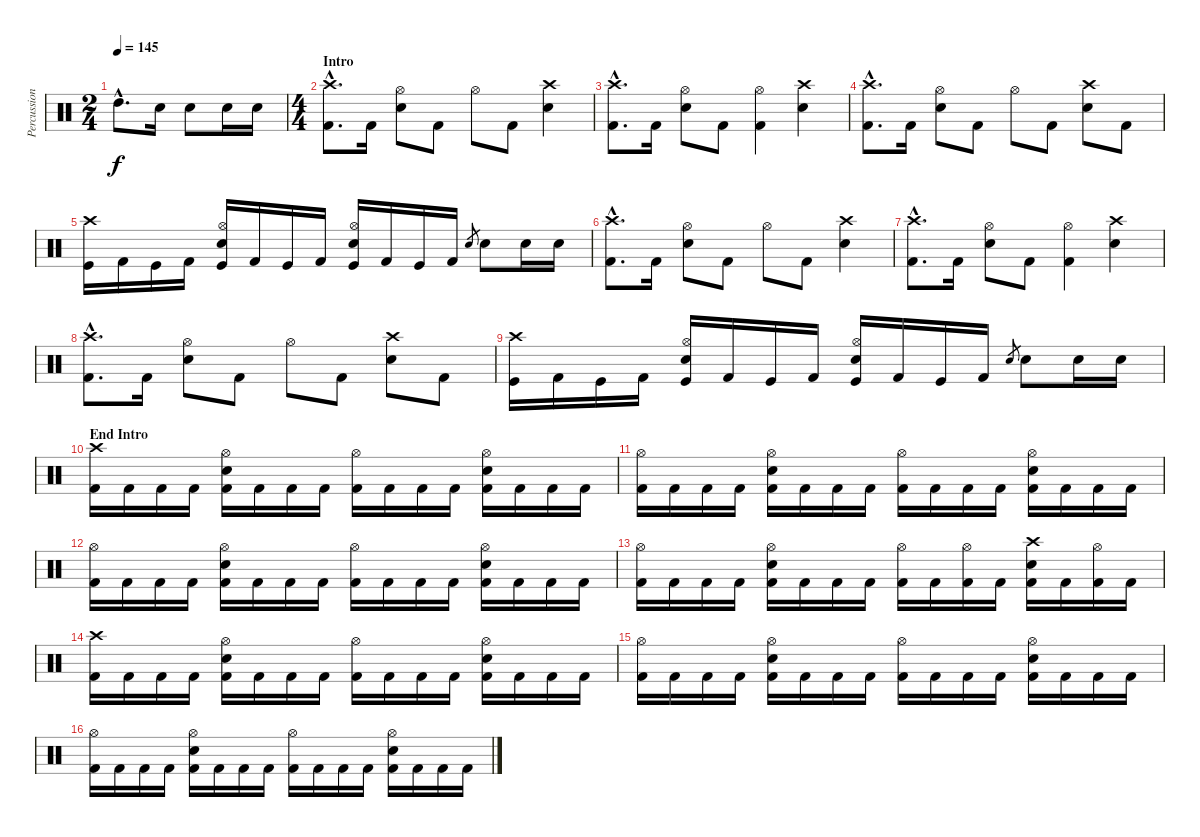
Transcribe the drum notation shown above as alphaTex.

\track ("Percussions" "Percussion") {instrument percussion}
\staff {score}
\articulation defaults
\ts (2 4)
\tempo 145
\clef neutral
\ks c "High Tom (hit)"{hac}.8{d dy f} "Electric Snare (hit)".16 "Electric Snare (hit)".8 "Electric Snare (hit)".16 "Electric Snare (hit)".16
|
\ts (4 4)
\section ("" "Intro")
("Crash high (hit)"{hac} "Kick (hit) 2"{hac}).8{d} "Kick (hit) 2".16 ("Hi-Hat (open)" "Electric Snare (hit)").8 "Kick (hit) 2".8 "Hi-Hat (open)".8 "Kick (hit) 2".8 ("Crash high (hit)" "Electric Snare (hit)").4 |
("Crash high (hit)"{hac} "Kick (hit) 2"{hac}).8{d} "Kick (hit) 2".16 ("Hi-Hat (open)" "Electric Snare (hit)").8 "Kick (hit) 2".8 ("Hi-Hat (open)" "Kick (hit) 2").4 ("Crash high (hit)" "Electric Snare (hit)").4 |
("Crash high (hit)"{hac} "Kick (hit) 2"{hac}).8{d} "Kick (hit) 2".16 ("Hi-Hat (open)" "Electric Snare (hit)").8 "Kick (hit) 2".8 "Hi-Hat (open)".8 "Kick (hit) 2".8 ("Crash high (hit)" "Electric Snare (hit)").8 "Kick (hit) 2".8 |
("Crash high (hit)" "Kick (hit)").16 "Kick (hit) 2".16 "Kick (hit)".16 "Kick (hit) 2".16 ("Hi-Hat (open)" "Electric Snare (hit)" "Kick (hit)").16 "Kick (hit) 2".16 "Kick (hit)".16 "Kick (hit) 2".16 ("Hi-Hat (open)" "Electric Snare (hit)" "Kick (hit)").16 "Kick (hit) 2".16 "Kick (hit)".16 "Kick (hit) 2".16 "Electric Snare (hit)".8{gr} "Electric Snare (hit)".8 "Electric Snare (hit)".16 "Electric Snare (hit)".16 |
("Crash high (hit)"{hac} "Kick (hit) 2"{hac}).8{d} "Kick (hit) 2".16 ("Hi-Hat (open)" "Electric Snare (hit)").8 "Kick (hit) 2".8 "Hi-Hat (open)".8 "Kick (hit) 2".8 ("Crash high (hit)" "Electric Snare (hit)").4 |
("Crash high (hit)"{hac} "Kick (hit) 2"{hac}).8{d} "Kick (hit) 2".16 ("Hi-Hat (open)" "Electric Snare (hit)").8 "Kick (hit) 2".8 ("Hi-Hat (open)" "Kick (hit) 2").4 ("Crash high (hit)" "Electric Snare (hit)").4 |
("Crash high (hit)"{hac} "Kick (hit) 2"{hac}).8{d} "Kick (hit) 2".16 ("Hi-Hat (open)" "Electric Snare (hit)").8 "Kick (hit) 2".8 "Hi-Hat (open)".8 "Kick (hit) 2".8 ("Crash high (hit)" "Electric Snare (hit)").8 "Kick (hit) 2".8 |
("Crash high (hit)" "Kick (hit)").16 "Kick (hit) 2".16 "Kick (hit)".16 "Kick (hit) 2".16 ("Hi-Hat (open)" "Electric Snare (hit)" "Kick (hit)").16 "Kick (hit) 2".16 "Kick (hit)".16 "Kick (hit) 2".16 ("Hi-Hat (open)" "Electric Snare (hit)" "Kick (hit)").16 "Kick (hit) 2".16 "Kick (hit)".16 "Kick (hit) 2".16 "Electric Snare (hit)".8{gr} "Electric Snare (hit)".8 "Electric Snare (hit)".16 "Electric Snare (hit)".16 |
\section ("" "End Intro")
("Crash high (hit)" "Kick (hit) 2").16 "Kick (hit) 2".16 "Kick (hit) 2".16 "Kick (hit) 2".16 ("Hi-Hat (open)" "Electric Snare (hit)" "Kick (hit) 2").16 "Kick (hit) 2".16 "Kick (hit) 2".16 "Kick (hit) 2".16 ("Hi-Hat (open)" "Kick (hit) 2").16 "Kick (hit) 2".16 "Kick (hit) 2".16 "Kick (hit) 2".16 ("Hi-Hat (open)" "Electric Snare (hit)" "Kick (hit) 2").16 "Kick (hit) 2".16 "Kick (hit) 2".16 "Kick (hit) 2".16 |
("Hi-Hat (open)" "Kick (hit) 2").16 "Kick (hit) 2".16 "Kick (hit) 2".16 "Kick (hit) 2".16 ("Hi-Hat (open)" "Electric Snare (hit)" "Kick (hit) 2").16 "Kick (hit) 2".16 "Kick (hit) 2".16 "Kick (hit) 2".16 ("Hi-Hat (open)" "Kick (hit) 2").16 "Kick (hit) 2".16 "Kick (hit) 2".16 "Kick (hit) 2".16 ("Hi-Hat (open)" "Electric Snare (hit)" "Kick (hit) 2").16 "Kick (hit) 2".16 "Kick (hit) 2".16 "Kick (hit) 2".16 |
("Hi-Hat (open)" "Kick (hit) 2").16 "Kick (hit) 2".16 "Kick (hit) 2".16 "Kick (hit) 2".16 ("Hi-Hat (open)" "Electric Snare (hit)" "Kick (hit) 2").16 "Kick (hit) 2".16 "Kick (hit) 2".16 "Kick (hit) 2".16 ("Hi-Hat (open)" "Kick (hit) 2").16 "Kick (hit) 2".16 "Kick (hit) 2".16 "Kick (hit) 2".16 ("Hi-Hat (open)" "Electric Snare (hit)" "Kick (hit) 2").16 "Kick (hit) 2".16 "Kick (hit) 2".16 "Kick (hit) 2".16 |
("Hi-Hat (open)" "Kick (hit) 2").16 "Kick (hit) 2".16 "Kick (hit) 2".16 "Kick (hit) 2".16 ("Hi-Hat (open)" "Electric Snare (hit)" "Kick (hit) 2").16 "Kick (hit) 2".16 "Kick (hit) 2".16 "Kick (hit) 2".16 ("Hi-Hat (open)" "Kick (hit) 2").16 "Kick (hit) 2".16 ("Hi-Hat (open)" "Kick (hit) 2").16 "Kick (hit) 2".16 ("Crash high (hit)" "Electric Snare (hit)" "Kick (hit) 2").16 "Kick (hit) 2".16 ("Hi-Hat (open)" "Kick (hit) 2").16 "Kick (hit) 2".16 |
("Crash high (hit)" "Kick (hit) 2").16 "Kick (hit) 2".16 "Kick (hit) 2".16 "Kick (hit) 2".16 ("Hi-Hat (open)" "Electric Snare (hit)" "Kick (hit) 2").16 "Kick (hit) 2".16 "Kick (hit) 2".16 "Kick (hit) 2".16 ("Hi-Hat (open)" "Kick (hit) 2").16 "Kick (hit) 2".16 "Kick (hit) 2".16 "Kick (hit) 2".16 ("Hi-Hat (open)" "Electric Snare (hit)" "Kick (hit) 2").16 "Kick (hit) 2".16 "Kick (hit) 2".16 "Kick (hit) 2".16 |
("Hi-Hat (open)" "Kick (hit) 2").16 "Kick (hit) 2".16 "Kick (hit) 2".16 "Kick (hit) 2".16 ("Hi-Hat (open)" "Electric Snare (hit)" "Kick (hit) 2").16 "Kick (hit) 2".16 "Kick (hit) 2".16 "Kick (hit) 2".16 ("Hi-Hat (open)" "Kick (hit) 2").16 "Kick (hit) 2".16 "Kick (hit) 2".16 "Kick (hit) 2".16 ("Hi-Hat (open)" "Electric Snare (hit)" "Kick (hit) 2").16 "Kick (hit) 2".16 "Kick (hit) 2".16 "Kick (hit) 2".16 |
("Hi-Hat (open)" "Kick (hit) 2").16 "Kick (hit) 2".16 "Kick (hit) 2".16 "Kick (hit) 2".16 ("Hi-Hat (open)" "Electric Snare (hit)" "Kick (hit) 2").16 "Kick (hit) 2".16 "Kick (hit) 2".16 "Kick (hit) 2".16 ("Hi-Hat (open)" "Kick (hit) 2").16 "Kick (hit) 2".16 "Kick (hit) 2".16 "Kick (hit) 2".16 ("Hi-Hat (open)" "Electric Snare (hit)" "Kick (hit) 2").16 "Kick (hit) 2".16 "Kick (hit) 2".16 "Kick (hit) 2".16
